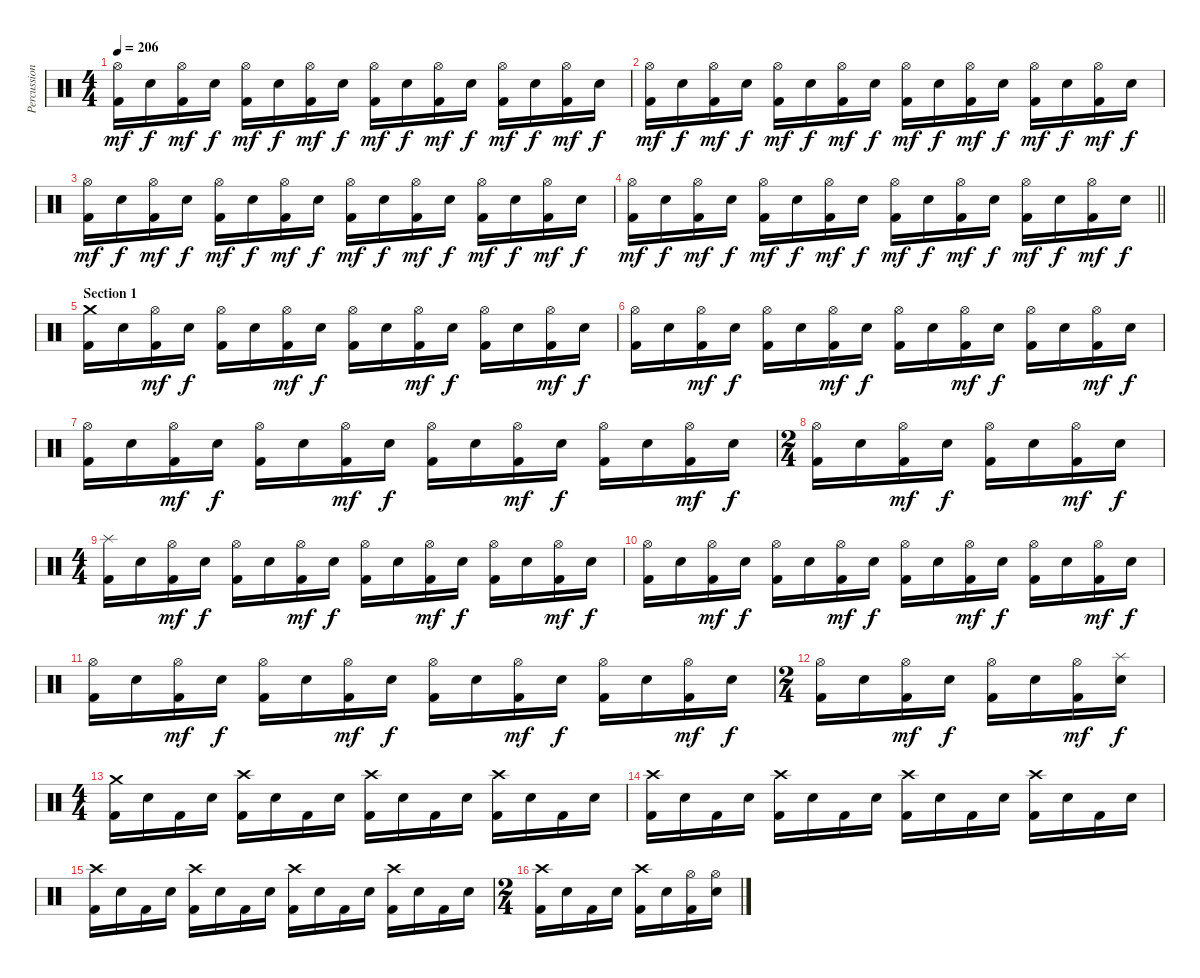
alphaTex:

\track ("Percussion" "Percussion") {instrument percussion}
\staff {score}
\articulation defaults
\ts (4 4)
\tempo 206
\clef neutral
\ks c
("Hi-Hat (open)" "Kick (hit) 2").16{dy mf} "Electric Snare (hit)".16{dy f} ("Hi-Hat (open)" "Kick (hit) 2").16{dy mf} "Electric Snare (hit)".16{dy f} ("Hi-Hat (open)" "Kick (hit) 2").16{dy mf} "Electric Snare (hit)".16{dy f} ("Hi-Hat (open)" "Kick (hit) 2").16{dy mf} "Electric Snare (hit)".16{dy f} ("Hi-Hat (open)" "Kick (hit) 2").16{dy mf} "Electric Snare (hit)".16{dy f} ("Hi-Hat (open)" "Kick (hit) 2").16{dy mf} "Electric Snare (hit)".16{dy f} ("Hi-Hat (open)" "Kick (hit) 2").16{dy mf} "Electric Snare (hit)".16{dy f} ("Hi-Hat (open)" "Kick (hit) 2").16{dy mf} "Electric Snare (hit)".16{dy f} |
("Hi-Hat (open)" "Kick (hit) 2").16{dy mf} "Electric Snare (hit)".16{dy f} ("Hi-Hat (open)" "Kick (hit) 2").16{dy mf} "Electric Snare (hit)".16{dy f} ("Hi-Hat (open)" "Kick (hit) 2").16{dy mf} "Electric Snare (hit)".16{dy f} ("Hi-Hat (open)" "Kick (hit) 2").16{dy mf} "Electric Snare (hit)".16{dy f} ("Hi-Hat (open)" "Kick (hit) 2").16{dy mf} "Electric Snare (hit)".16{dy f} ("Hi-Hat (open)" "Kick (hit) 2").16{dy mf} "Electric Snare (hit)".16{dy f} ("Hi-Hat (open)" "Kick (hit) 2").16{dy mf} "Electric Snare (hit)".16{dy f} ("Hi-Hat (open)" "Kick (hit) 2").16{dy mf} "Electric Snare (hit)".16{dy f} |
("Hi-Hat (open)" "Kick (hit) 2").16{dy mf} "Electric Snare (hit)".16{dy f} ("Hi-Hat (open)" "Kick (hit) 2").16{dy mf} "Electric Snare (hit)".16{dy f} ("Hi-Hat (open)" "Kick (hit) 2").16{dy mf} "Electric Snare (hit)".16{dy f} ("Hi-Hat (open)" "Kick (hit) 2").16{dy mf} "Electric Snare (hit)".16{dy f} ("Hi-Hat (open)" "Kick (hit) 2").16{dy mf} "Electric Snare (hit)".16{dy f} ("Hi-Hat (open)" "Kick (hit) 2").16{dy mf} "Electric Snare (hit)".16{dy f} ("Hi-Hat (open)" "Kick (hit) 2").16{dy mf} "Electric Snare (hit)".16{dy f} ("Hi-Hat (open)" "Kick (hit) 2").16{dy mf} "Electric Snare (hit)".16{dy f} |
\barLineRight lightlight
("Hi-Hat (open)" "Kick (hit) 2").16{dy mf} "Electric Snare (hit)".16{dy f} ("Hi-Hat (open)" "Kick (hit) 2").16{dy mf} "Electric Snare (hit)".16{dy f} ("Hi-Hat (open)" "Kick (hit) 2").16{dy mf} "Electric Snare (hit)".16{dy f} ("Hi-Hat (open)" "Kick (hit) 2").16{dy mf} "Electric Snare (hit)".16{dy f} ("Hi-Hat (open)" "Kick (hit) 2").16{dy mf} "Electric Snare (hit)".16{dy f} ("Hi-Hat (open)" "Kick (hit) 2").16{dy mf} "Electric Snare (hit)".16{dy f} ("Hi-Hat (open)" "Kick (hit) 2").16{dy mf} "Electric Snare (hit)".16{dy f} ("Hi-Hat (open)" "Kick (hit) 2").16{dy mf} "Electric Snare (hit)".16{dy f} |
\section ("" "Section 1")
("Crash medium (hit)" "Kick (hit) 2").16 "Electric Snare (hit)".16 ("Hi-Hat (open)" "Kick (hit) 2").16{dy mf} "Electric Snare (hit)".16{dy f} ("Hi-Hat (open)" "Kick (hit) 2").16 "Electric Snare (hit)".16 ("Hi-Hat (open)" "Kick (hit) 2").16{dy mf} "Electric Snare (hit)".16{dy f} ("Hi-Hat (open)" "Kick (hit) 2").16 "Electric Snare (hit)".16 ("Hi-Hat (open)" "Kick (hit) 2").16{dy mf} "Electric Snare (hit)".16{dy f} ("Hi-Hat (open)" "Kick (hit) 2").16 "Electric Snare (hit)".16 ("Hi-Hat (open)" "Kick (hit) 2").16{dy mf} "Electric Snare (hit)".16{dy f} |
("Hi-Hat (open)" "Kick (hit) 2").16 "Electric Snare (hit)".16 ("Hi-Hat (open)" "Kick (hit) 2").16{dy mf} "Electric Snare (hit)".16{dy f} ("Hi-Hat (open)" "Kick (hit) 2").16 "Electric Snare (hit)".16 ("Hi-Hat (open)" "Kick (hit) 2").16{dy mf} "Electric Snare (hit)".16{dy f} ("Hi-Hat (open)" "Kick (hit) 2").16 "Electric Snare (hit)".16 ("Hi-Hat (open)" "Kick (hit) 2").16{dy mf} "Electric Snare (hit)".16{dy f} ("Hi-Hat (open)" "Kick (hit) 2").16 "Electric Snare (hit)".16 ("Hi-Hat (open)" "Kick (hit) 2").16{dy mf} "Electric Snare (hit)".16{dy f} |
("Hi-Hat (open)" "Kick (hit) 2").16 "Electric Snare (hit)".16 ("Hi-Hat (open)" "Kick (hit) 2").16{dy mf} "Electric Snare (hit)".16{dy f} ("Hi-Hat (open)" "Kick (hit) 2").16 "Electric Snare (hit)".16 ("Hi-Hat (open)" "Kick (hit) 2").16{dy mf} "Electric Snare (hit)".16{dy f} ("Hi-Hat (open)" "Kick (hit) 2").16 "Electric Snare (hit)".16 ("Hi-Hat (open)" "Kick (hit) 2").16{dy mf} "Electric Snare (hit)".16{dy f} ("Hi-Hat (open)" "Kick (hit) 2").16 "Electric Snare (hit)".16 ("Hi-Hat (open)" "Kick (hit) 2").16{dy mf} "Electric Snare (hit)".16{dy f} |
\ts (2 4)
("Hi-Hat (open)" "Kick (hit) 2").16 "Electric Snare (hit)".16 ("Hi-Hat (open)" "Kick (hit) 2").16{dy mf} "Electric Snare (hit)".16{dy f} ("Hi-Hat (open)" "Kick (hit) 2").16 "Electric Snare (hit)".16 ("Hi-Hat (open)" "Kick (hit) 2").16{dy mf} "Electric Snare (hit)".16{dy f} |
\ts (4 4)
("Splash (hit)" "Kick (hit) 2").16 "Electric Snare (hit)".16 ("Hi-Hat (open)" "Kick (hit) 2").16{dy mf} "Electric Snare (hit)".16{dy f} ("Hi-Hat (open)" "Kick (hit) 2").16 "Electric Snare (hit)".16 ("Hi-Hat (open)" "Kick (hit) 2").16{dy mf} "Electric Snare (hit)".16{dy f} ("Hi-Hat (open)" "Kick (hit) 2").16 "Electric Snare (hit)".16 ("Hi-Hat (open)" "Kick (hit) 2").16{dy mf} "Electric Snare (hit)".16{dy f} ("Hi-Hat (open)" "Kick (hit) 2").16 "Electric Snare (hit)".16 ("Hi-Hat (open)" "Kick (hit) 2").16{dy mf} "Electric Snare (hit)".16{dy f} |
("Hi-Hat (open)" "Kick (hit) 2").16 "Electric Snare (hit)".16 ("Hi-Hat (open)" "Kick (hit) 2").16{dy mf} "Electric Snare (hit)".16{dy f} ("Hi-Hat (open)" "Kick (hit) 2").16 "Electric Snare (hit)".16 ("Hi-Hat (open)" "Kick (hit) 2").16{dy mf} "Electric Snare (hit)".16{dy f} ("Hi-Hat (open)" "Kick (hit) 2").16 "Electric Snare (hit)".16 ("Hi-Hat (open)" "Kick (hit) 2").16{dy mf} "Electric Snare (hit)".16{dy f} ("Hi-Hat (open)" "Kick (hit) 2").16 "Electric Snare (hit)".16 ("Hi-Hat (open)" "Kick (hit) 2").16{dy mf} "Electric Snare (hit)".16{dy f} |
("Hi-Hat (open)" "Kick (hit) 2").16 "Electric Snare (hit)".16 ("Hi-Hat (open)" "Kick (hit) 2").16{dy mf} "Electric Snare (hit)".16{dy f} ("Hi-Hat (open)" "Kick (hit) 2").16 "Electric Snare (hit)".16 ("Hi-Hat (open)" "Kick (hit) 2").16{dy mf} "Electric Snare (hit)".16{dy f} ("Hi-Hat (open)" "Kick (hit) 2").16 "Electric Snare (hit)".16 ("Hi-Hat (open)" "Kick (hit) 2").16{dy mf} "Electric Snare (hit)".16{dy f} ("Hi-Hat (open)" "Kick (hit) 2").16 "Electric Snare (hit)".16 ("Hi-Hat (open)" "Kick (hit) 2").16{dy mf} "Electric Snare (hit)".16{dy f} |
\ts (2 4)
("Hi-Hat (open)" "Kick (hit) 2").16 "Electric Snare (hit)".16 ("Hi-Hat (open)" "Kick (hit) 2").16{dy mf} "Electric Snare (hit)".16{dy f} ("Hi-Hat (open)" "Kick (hit) 2").16 "Electric Snare (hit)".16 ("Hi-Hat (open)" "Kick (hit) 2").16{dy mf} ("Splash (hit)" "Electric Snare (hit)").16{dy f} |
\ts (4 4)
("Crash medium (hit)" "Kick (hit) 2").16 "Electric Snare (hit)".16 "Kick (hit) 2".16 "Electric Snare (hit)".16 ("Crash high (hit)" "Kick (hit) 2").16 "Electric Snare (hit)".16 "Kick (hit) 2".16 "Electric Snare (hit)".16 ("Crash high (hit)" "Kick (hit) 2").16 "Electric Snare (hit)".16 "Kick (hit) 2".16 "Electric Snare (hit)".16 ("Crash high (hit)" "Kick (hit) 2").16 "Electric Snare (hit)".16 "Kick (hit) 2".16 "Electric Snare (hit)".16 |
("Crash high (hit)" "Kick (hit) 2").16 "Electric Snare (hit)".16 "Kick (hit) 2".16 "Electric Snare (hit)".16 ("Crash high (hit)" "Kick (hit) 2").16 "Electric Snare (hit)".16 "Kick (hit) 2".16 "Electric Snare (hit)".16 ("Crash high (hit)" "Kick (hit) 2").16 "Electric Snare (hit)".16 "Kick (hit) 2".16 "Electric Snare (hit)".16 ("Crash high (hit)" "Kick (hit) 2").16 "Electric Snare (hit)".16 "Kick (hit) 2".16 "Electric Snare (hit)".16 |
("Crash high (hit)" "Kick (hit) 2").16 "Electric Snare (hit)".16 "Kick (hit) 2".16 "Electric Snare (hit)".16 ("Crash high (hit)" "Kick (hit) 2").16 "Electric Snare (hit)".16 "Kick (hit) 2".16 "Electric Snare (hit)".16 ("Crash high (hit)" "Kick (hit) 2").16 "Electric Snare (hit)".16 "Kick (hit) 2".16 "Electric Snare (hit)".16 ("Crash high (hit)" "Kick (hit) 2").16 "Electric Snare (hit)".16 "Kick (hit) 2".16 "Electric Snare (hit)".16 |
\ts (2 4)
("Crash high (hit)" "Kick (hit) 2").16 "Electric Snare (hit)".16 "Kick (hit) 2".16 "Electric Snare (hit)".16 ("Crash high (hit)" "Kick (hit) 2").16 "Electric Snare (hit)".16 ("Hi-Hat (open)" "Kick (hit) 2").16 ("Hi-Hat (open)" "Electric Snare (hit)").16
